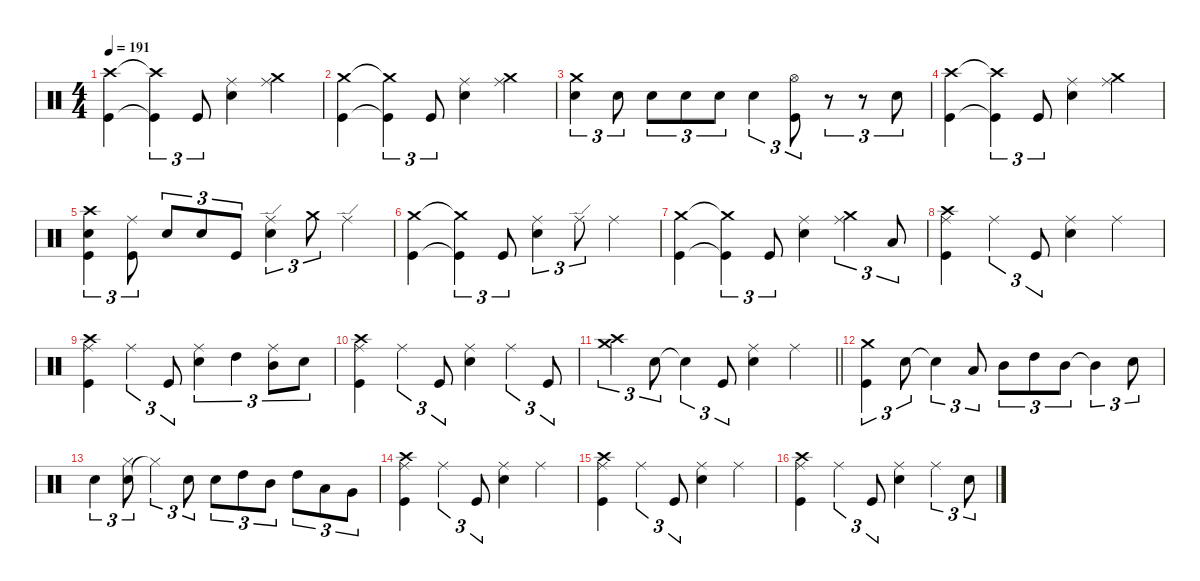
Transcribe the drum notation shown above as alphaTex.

\defaultSystemsLayout 4
\hideDynamics
\bracketExtendMode nobrackets
\singleTrackTrackNamePolicy hidden
\multiTrackTrackNamePolicy hidden
\firstSystemTrackNameMode fullname
\firstSystemTrackNameOrientation horizontal
\otherSystemsTrackNameOrientation horizontal
\track ("Drumkit" "drm.") {instrument percussion}
\staff {score}
\articulation defaults
\ts (4 4)
\tempo 191
\clef neutral
\ks c
("Kick (hit)" "Crash high (hit)").4{dy f beam Down} ("Kick (hit)"{t} "Crash high (hit)"{t}).4{tu (3 2) dy mf beam Down} "Kick (hit)".8{tu (3 2) dy f beam Up} ("Snare (hit) 2" "Ride (middle)").4{beam Down} ("Crash medium (hit)" "Ride (middle)").4{dy mp beam Down} |
("Kick (hit)" "Crash medium (hit)").4{dy f beam Down} ("Kick (hit)"{t} "Crash medium (hit)"{t}).4{tu (3 2) dy mf beam Down} "Kick (hit)".8{tu (3 2) dy f beam Up} ("Snare (hit) 2" "Ride (middle)").4{beam Down} ("Crash medium (hit)" "Ride (middle)").4{dy mp beam Down} |
("Snare (hit) 2" "Crash medium (hit)").4{tu (3 2) dy f beam Down} "Snare (hit) 2".8{tu (3 2) beam Down} "Snare (hit) 2".8{tu (3 2) beam Down} "Snare (hit) 2".8{tu (3 2) beam Down} "Snare (hit) 2".8{tu (3 2) beam Down} "Snare (hit) 2".4{tu (3 2) beam Down} ("Kick (hit)" "Hi-Hat (open)").8{tu (3 2) dy mf beam Down} r.8{tu (3 2) beam Down} r.8{tu (3 2) beam Down} "Snare (hit) 2".8{tu (3 2) dy f beam Down} |
("Kick (hit)" "Crash high (hit)").4{beam Down} ("Kick (hit)"{t} "Crash high (hit)"{t}).4{tu (3 2) dy mf beam Down} "Kick (hit)".8{tu (3 2) dy f beam Up} ("Snare (hit) 2" "Ride (middle)").4{beam Down} ("Crash medium (hit)" "Ride (middle)").4{dy mp beam Down} |
("Kick (hit)" "Crash high (hit)" "Snare (hit) 2").4{tu (3 2) dy f beam Down} ("Ride (middle)" "Kick (hit)").8{tu (3 2) dy mp beam Down} "Snare (hit) 2".8{tu (3 2) dy mf beam Up} "Snare (hit) 2".8{tu (3 2) beam Up} "Kick (hit)".8{tu (3 2) dy f beam Up} ("Snare (hit) 2" "Ride (edge)").4{tu (3 2) beam Down} "Crash medium (hit)".8{tu (3 2) dy mp beam Down} "Ride (edge)".4{beam Down} |
("Kick (hit)" "Crash medium (hit)").4{dy f beam Down} ("Kick (hit)"{t} "Crash medium (hit)"{t}).4{tu (3 2) dy mf beam Down} "Kick (hit)".8{tu (3 2) dy f beam Up} ("Snare (hit) 2" "Ride (middle)").4{tu (3 2) beam Down} "Ride (edge)".8{tu (3 2) dy mp beam Down} "Ride (middle)".4{dy mf beam Down} |
("Kick (hit)" "Crash medium (hit)").4{dy f beam Down} ("Kick (hit)"{t} "Crash medium (hit)"{t}).4{tu (3 2) dy mf beam Down} "Kick (hit)".8{tu (3 2) dy f beam Up} ("Snare (hit) 2" "Ride (middle)").4{beam Down} ("Crash medium (hit)" "Ride (middle)").4{tu (3 2) dy mp beam Down} "Low Tom (hit)".8{tu (3 2) beam Up} |
("Kick (hit)" "Crash high (hit)" "Ride (middle)").4{dy f beam Down} "Ride (middle)".4{tu (3 2) dy mp beam Down} "Kick (hit)".8{tu (3 2) dy f beam Up} ("Snare (hit) 2" "Ride (middle)").4{beam Down} "Ride (middle)".4{dy mp beam Down} |
("Kick (hit)" "Crash high (hit)" "Ride (middle)").4{dy f beam Down} "Ride (middle)".4{tu (3 2) dy mp beam Down} "Kick (hit)".8{tu (3 2) dy f beam Up} ("Snare (hit) 2" "Ride (middle)").4{tu (3 2) beam Down} "High Tom (hit)".4{tu (3 2) beam Down} ("Mid Tom (hit)" "Ride (middle)").8{tu (3 2) beam Down} "Snare (hit) 2".8{tu (3 2) beam Down} |
("Kick (hit)" "Crash high (hit)" "Ride (middle)").4{beam Down} "Ride (middle)".4{tu (3 2) dy mp beam Down} "Kick (hit)".8{tu (3 2) dy f beam Up} ("Snare (hit) 2" "Ride (middle)").4{beam Down} "Ride (middle)".4{tu (3 2) dy mp beam Down} "Kick (hit)".8{tu (3 2) beam Up} |
\barLineRight lightlight
("Crash high (hit)" "Crash medium (hit)").4{tu (3 2) beam Down} "Snare (hit) 2".8{tu (3 2) dy f beam Down} "Snare (hit) 2"{t}.4{tu (3 2) beam Down} "Kick (hit)".8{tu (3 2) beam Up} ("Snare (hit) 2" "Ride (middle)").4{beam Down} "Ride (middle)".4{dy mp beam Down} |
("Kick (hit)" "Crash medium (hit)").4{tu (3 2) dy f beam Down} "Snare (hit) 2".8{tu (3 2) beam Down} "Snare (hit) 2"{t}.4{tu (3 2) beam Down} "Low Tom (hit)".8{tu (3 2) beam Up} "Mid Tom (hit)".8{tu (3 2) beam Down} "High Tom (hit)".8{tu (3 2) beam Down} "Mid Tom (hit)".8{tu (3 2) beam Down} "Mid Tom (hit)"{t}.4{tu (3 2) beam Down} "Snare (hit) 2".8{tu (3 2) beam Down} |
"Snare (hit) 2".4{tu (3 2) beam Down} ("Snare (hit) 2" "Hi-Hat (closed)").8{tu (3 2) beam Down} "Hi-Hat (closed)"{t}.4{tu (3 2) beam Down} "Snare (hit) 2".8{tu (3 2) beam Down} "Snare (hit) 2".8{tu (3 2) beam Down} "High Tom (hit)".8{tu (3 2) beam Down} "Mid Tom (hit)".8{tu (3 2) beam Down} "High Tom (hit)".8{tu (3 2) beam Down} "Low Tom (hit)".8{tu (3 2) beam Down} "Very Low Tom (hit)".8{tu (3 2) beam Down} |
("Kick (hit)" "Crash high (hit)" "Ride (middle)").4{beam Down} "Ride (middle)".4{tu (3 2) dy mp beam Down} "Kick (hit)".8{tu (3 2) dy f beam Up} ("Snare (hit) 2" "Ride (middle)").4{beam Down} "Ride (middle)".4{dy mp beam Down} |
("Kick (hit)" "Crash high (hit)" "Ride (middle)").4{dy f beam Down} "Ride (middle)".4{tu (3 2) dy mp beam Down} "Kick (hit)".8{tu (3 2) dy f beam Up} ("Snare (hit) 2" "Ride (middle)").4{beam Down} "Ride (middle)".4{dy mp beam Down} |
("Kick (hit)" "Crash high (hit)" "Ride (middle)").4{dy f beam Down} "Ride (middle)".4{tu (3 2) dy mp beam Down} "Kick (hit)".8{tu (3 2) dy f beam Up} ("Snare (hit) 2" "Ride (middle)").4{beam Down} "Ride (middle)".4{tu (3 2) dy mp beam Down} "Snare (hit) 2".8{tu (3 2) dy f beam Down}
